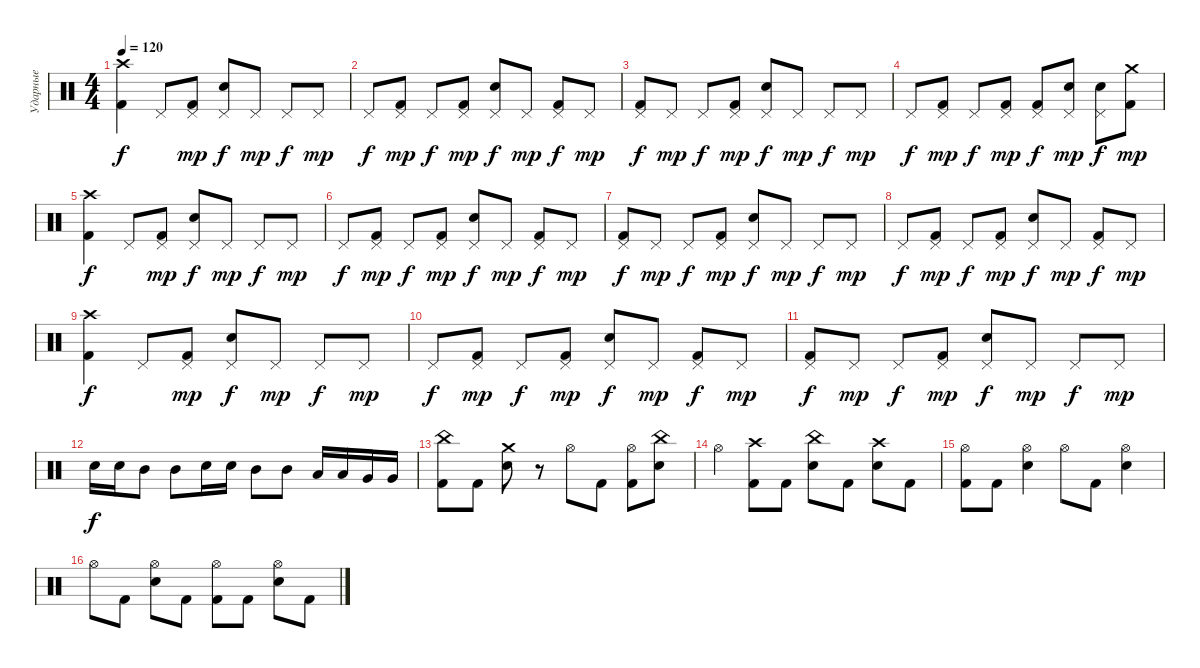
\track ("Ударные" "Ударные") {instrument percussion}
\staff {score}
\articulation defaults
\ts (4 4)
\tempo 120
\clef neutral
\ks c
("Crash high (hit)" "Kick (hit) 2").4{dy f} "Pedal Hi-Hat (hit)".8 ("Pedal Hi-Hat (hit)" "Kick (hit) 2").8{dy mp} ("Pedal Hi-Hat (hit)" "Electric Snare (hit)").8{dy f} "Pedal Hi-Hat (hit)".8{dy mp} "Pedal Hi-Hat (hit)".8{dy f} "Pedal Hi-Hat (hit)".8{dy mp} |
"Pedal Hi-Hat (hit)".8{dy f} ("Pedal Hi-Hat (hit)" "Kick (hit) 2").8{dy mp} "Pedal Hi-Hat (hit)".8{dy f} ("Pedal Hi-Hat (hit)" "Kick (hit) 2").8{dy mp} ("Pedal Hi-Hat (hit)" "Electric Snare (hit)").8{dy f} "Pedal Hi-Hat (hit)".8{dy mp} ("Pedal Hi-Hat (hit)" "Kick (hit) 2").8{dy f} "Pedal Hi-Hat (hit)".8{dy mp} |
("Pedal Hi-Hat (hit)" "Kick (hit) 2").8{dy f} "Pedal Hi-Hat (hit)".8{dy mp} "Pedal Hi-Hat (hit)".8{dy f} ("Pedal Hi-Hat (hit)" "Kick (hit) 2").8{dy mp} ("Pedal Hi-Hat (hit)" "Electric Snare (hit)").8{dy f} "Pedal Hi-Hat (hit)".8{dy mp} "Pedal Hi-Hat (hit)".8{dy f} "Pedal Hi-Hat (hit)".8{dy mp} |
"Pedal Hi-Hat (hit)".8{dy f} ("Pedal Hi-Hat (hit)" "Kick (hit) 2").8{dy mp} "Pedal Hi-Hat (hit)".8{dy f} ("Pedal Hi-Hat (hit)" "Kick (hit) 2").8{dy mp} ("Pedal Hi-Hat (hit)" "Kick (hit) 2").8{dy f} ("Pedal Hi-Hat (hit)" "Electric Snare (hit)").8{dy mp} ("Pedal Hi-Hat (hit)" "Electric Snare (hit)").8{dy f} ("Crash medium (hit)" "Kick (hit) 2").8{dy mp} |
("Crash high (hit)" "Kick (hit) 2").4{dy f} "Pedal Hi-Hat (hit)".8 ("Pedal Hi-Hat (hit)" "Kick (hit) 2").8{dy mp} ("Pedal Hi-Hat (hit)" "Electric Snare (hit)").8{dy f} "Pedal Hi-Hat (hit)".8{dy mp} "Pedal Hi-Hat (hit)".8{dy f} "Pedal Hi-Hat (hit)".8{dy mp} |
"Pedal Hi-Hat (hit)".8{dy f} ("Pedal Hi-Hat (hit)" "Kick (hit) 2").8{dy mp} "Pedal Hi-Hat (hit)".8{dy f} ("Pedal Hi-Hat (hit)" "Kick (hit) 2").8{dy mp} ("Pedal Hi-Hat (hit)" "Electric Snare (hit)").8{dy f} "Pedal Hi-Hat (hit)".8{dy mp} ("Pedal Hi-Hat (hit)" "Kick (hit) 2").8{dy f} "Pedal Hi-Hat (hit)".8{dy mp} |
("Pedal Hi-Hat (hit)" "Kick (hit) 2").8{dy f} "Pedal Hi-Hat (hit)".8{dy mp} "Pedal Hi-Hat (hit)".8{dy f} ("Pedal Hi-Hat (hit)" "Kick (hit) 2").8{dy mp} ("Pedal Hi-Hat (hit)" "Electric Snare (hit)").8{dy f} "Pedal Hi-Hat (hit)".8{dy mp} "Pedal Hi-Hat (hit)".8{dy f} "Pedal Hi-Hat (hit)".8{dy mp} |
"Pedal Hi-Hat (hit)".8{dy f} ("Pedal Hi-Hat (hit)" "Kick (hit) 2").8{dy mp} "Pedal Hi-Hat (hit)".8{dy f} ("Pedal Hi-Hat (hit)" "Kick (hit) 2").8{dy mp} ("Pedal Hi-Hat (hit)" "Electric Snare (hit)").8{dy f} "Pedal Hi-Hat (hit)".8{dy mp} ("Pedal Hi-Hat (hit)" "Kick (hit) 2").8{dy f} "Pedal Hi-Hat (hit)".8{dy mp} |
("Crash high (hit)" "Kick (hit) 2").4{dy f} "Pedal Hi-Hat (hit)".8 ("Pedal Hi-Hat (hit)" "Kick (hit) 2").8{dy mp} ("Pedal Hi-Hat (hit)" "Electric Snare (hit)").8{dy f} "Pedal Hi-Hat (hit)".8{dy mp} "Pedal Hi-Hat (hit)".8{dy f} "Pedal Hi-Hat (hit)".8{dy mp} |
"Pedal Hi-Hat (hit)".8{dy f} ("Pedal Hi-Hat (hit)" "Kick (hit) 2").8{dy mp} "Pedal Hi-Hat (hit)".8{dy f} ("Pedal Hi-Hat (hit)" "Kick (hit) 2").8{dy mp} ("Pedal Hi-Hat (hit)" "Electric Snare (hit)").8{dy f} "Pedal Hi-Hat (hit)".8{dy mp} ("Pedal Hi-Hat (hit)" "Kick (hit) 2").8{dy f} "Pedal Hi-Hat (hit)".8{dy mp} |
("Pedal Hi-Hat (hit)" "Kick (hit) 2").8{dy f} "Pedal Hi-Hat (hit)".8{dy mp} "Pedal Hi-Hat (hit)".8{dy f} ("Pedal Hi-Hat (hit)" "Kick (hit) 2").8{dy mp} ("Pedal Hi-Hat (hit)" "Electric Snare (hit)").8{dy f} "Pedal Hi-Hat (hit)".8{dy mp} "Pedal Hi-Hat (hit)".8{dy f} "Pedal Hi-Hat (hit)".8{dy mp} |
"Electric Snare (hit)".16{dy f} "Electric Snare (hit)".16 "Mid Tom (hit)".8 "Mid Tom (hit)".8 "Electric Snare (hit)".16 "Electric Snare (hit)".16 "Mid Tom (hit)".8 "Mid Tom (hit)".8 "Low Tom (hit)".16 "Low Tom (hit)".16 "Very Low Tom (hit)".16 "Very Low Tom (hit)".16 |
("China (hit)" "Kick (hit) 2").8 "Kick (hit) 2".8 ("Crash medium (hit)" "Electric Snare (hit)").8 r.8 "Hi-Hat (open)".8 "Kick (hit) 2".8 ("Hi-Hat (open)" "Kick (hit) 2").8 ("China (hit)" "Electric Snare (hit)").8 |
"Hi-Hat (open)".4 ("Crash high (hit)" "Kick (hit) 2").8 "Kick (hit) 2".8 ("China (hit)" "Electric Snare (hit)").8 "Kick (hit) 2".8 ("Crash high (hit)" "Electric Snare (hit)").8 "Kick (hit) 2".8 |
("Hi-Hat (open)" "Kick (hit) 2").8 "Kick (hit) 2".8 ("Hi-Hat (open)" "Electric Snare (hit)").4 "Hi-Hat (open)".8 "Kick (hit) 2".8 ("Hi-Hat (open)" "Electric Snare (hit)").4 |
"Hi-Hat (open)".8 "Kick (hit) 2".8 ("Hi-Hat (open)" "Electric Snare (hit)").8 "Kick (hit) 2".8 ("Hi-Hat (open)" "Kick (hit) 2").8 "Kick (hit) 2".8 ("Hi-Hat (open)" "Electric Snare (hit)").8 "Kick (hit) 2".8
